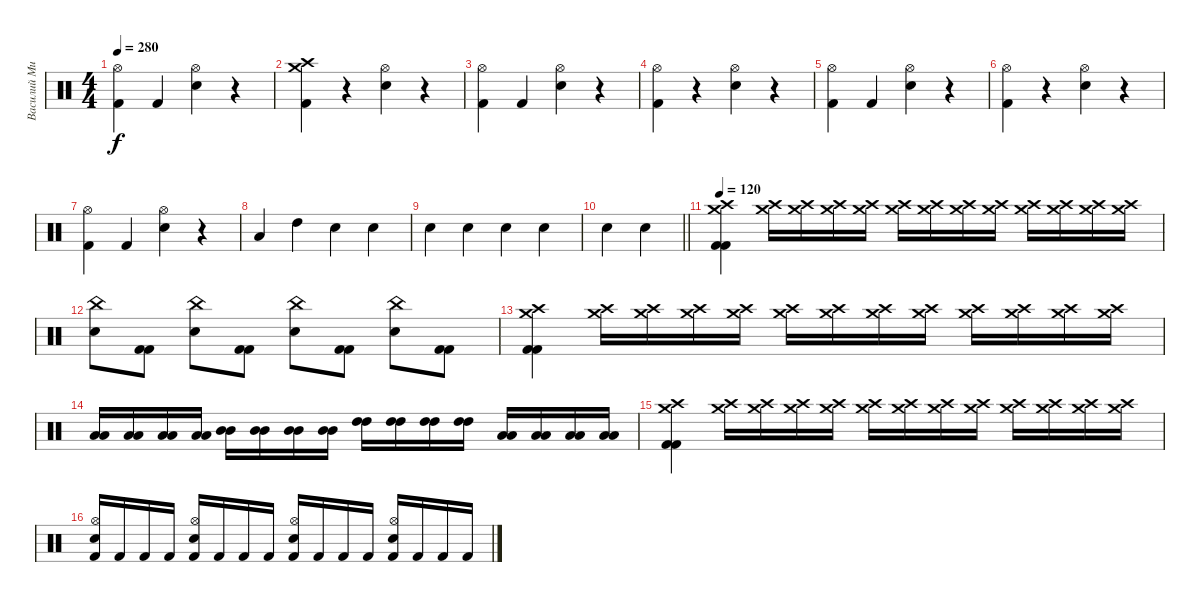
\track ("Василий Михалыч-ударные" "Василий Ми") {instrument percussion}
\staff {score}
\articulation defaults
\ts (4 4)
\tempo 280
\clef neutral
\ks c
("Kick (hit) 2" "Hi-Hat (open)").4{dy f} "Kick (hit) 2".4 ("Snare (hit) 2" "Hi-Hat (open)").4 r.4 |
("Kick (hit) 2" "Crash high (hit)" "Crash medium (hit)").4 r.4 ("Snare (hit) 2" "Hi-Hat (open)").4 r.4 |
("Kick (hit) 2" "Hi-Hat (open)").4 "Kick (hit) 2".4 ("Snare (hit) 2" "Hi-Hat (open)").4 r.4 |
("Kick (hit) 2" "Hi-Hat (open)").4 r.4 ("Snare (hit) 2" "Hi-Hat (open)").4 r.4 |
("Kick (hit) 2" "Hi-Hat (open)").4 "Kick (hit) 2".4 ("Snare (hit) 2" "Hi-Hat (open)").4 r.4 |
("Kick (hit) 2" "Hi-Hat (open)").4 r.4 ("Snare (hit) 2" "Hi-Hat (open)").4 r.4 |
("Kick (hit) 2" "Hi-Hat (open)").4 "Kick (hit) 2".4 ("Snare (hit) 2" "Hi-Hat (open)").4 r.4 |
"Low Tom (hit)".4 "High Tom (hit)".4 "Snare (hit) 2".4 "Snare (hit) 2".4 |
"Snare (hit) 2".4 "Snare (hit) 2".4 "Snare (hit) 2".4 "Snare (hit) 2".4 |
\barLineRight lightlight "Snare (hit) 2".4 "Snare (hit) 2".4
|
\tempo 120
("Kick (hit) 2" "Kick (hit) 2" "Crash high (hit)" "Crash medium (hit)").4 ("Crash high (hit)" "Crash medium (hit)").16 ("Crash high (hit)" "Crash medium (hit)").16 ("Crash high (hit)" "Crash medium (hit)").16 ("Crash high (hit)" "Crash medium (hit)").16 ("Crash high (hit)" "Crash medium (hit)").16 ("Crash high (hit)" "Crash medium (hit)").16 ("Crash high (hit)" "Crash medium (hit)").16 ("Crash high (hit)" "Crash medium (hit)").16 ("Crash high (hit)" "Crash medium (hit)").16 ("Crash high (hit)" "Crash medium (hit)").16 ("Crash high (hit)" "Crash medium (hit)").16 ("Crash high (hit)" "Crash medium (hit)").16 |
("Electric Snare (hit)" "China (hit)").8 ("Kick (hit) 2" "Kick (hit) 2").8 ("Electric Snare (hit)" "China (hit)").8 ("Kick (hit) 2" "Kick (hit) 2").8 ("Electric Snare (hit)" "China (hit)").8 ("Kick (hit) 2" "Kick (hit) 2").8 ("Electric Snare (hit)" "China (hit)").8 ("Kick (hit) 2" "Kick (hit) 2").8 |
("Kick (hit) 2" "Kick (hit) 2" "Crash high (hit)" "Crash medium (hit)").4 ("Crash high (hit)" "Crash medium (hit)").16 ("Crash high (hit)" "Crash medium (hit)").16 ("Crash high (hit)" "Crash medium (hit)").16 ("Crash high (hit)" "Crash medium (hit)").16 ("Crash high (hit)" "Crash medium (hit)").16 ("Crash high (hit)" "Crash medium (hit)").16 ("Crash high (hit)" "Crash medium (hit)").16 ("Crash high (hit)" "Crash medium (hit)").16 ("Crash high (hit)" "Crash medium (hit)").16 ("Crash high (hit)" "Crash medium (hit)").16 ("Crash high (hit)" "Crash medium (hit)").16 ("Crash high (hit)" "Crash medium (hit)").16 |
("Low Tom (hit)" "Low Tom (hit)").16 ("Low Tom (hit)" "Low Tom (hit)").16 ("Low Tom (hit)" "Low Tom (hit)").16 ("Low Tom (hit)" "Low Tom (hit)").16 ("Mid Tom (hit)" "Mid Tom (hit)").16 ("Mid Tom (hit)" "Mid Tom (hit)").16 ("Mid Tom (hit)" "Mid Tom (hit)").16 ("Mid Tom (hit)" "Mid Tom (hit)").16 ("High Tom (hit)" "High Tom (hit)").16 ("High Tom (hit)" "High Tom (hit)").16 ("High Tom (hit)" "High Tom (hit)").16 ("High Tom (hit)" "High Tom (hit)").16 ("Low Tom (hit)" "Low Tom (hit)").16 ("Low Tom (hit)" "Low Tom (hit)").16 ("Low Tom (hit)" "Low Tom (hit)").16 ("Low Tom (hit)" "Low Tom (hit)").16 |
("Kick (hit) 2" "Kick (hit) 2" "Crash high (hit)" "Crash medium (hit)").4 ("Crash high (hit)" "Crash medium (hit)").16 ("Crash high (hit)" "Crash medium (hit)").16 ("Crash high (hit)" "Crash medium (hit)").16 ("Crash high (hit)" "Crash medium (hit)").16 ("Crash high (hit)" "Crash medium (hit)").16 ("Crash high (hit)" "Crash medium (hit)").16 ("Crash high (hit)" "Crash medium (hit)").16 ("Crash high (hit)" "Crash medium (hit)").16 ("Crash high (hit)" "Crash medium (hit)").16 ("Crash high (hit)" "Crash medium (hit)").16 ("Crash high (hit)" "Crash medium (hit)").16 ("Crash high (hit)" "Crash medium (hit)").16 |
("Kick (hit) 2" "Electric Snare (hit)" "Hi-Hat (open)").16 "Kick (hit) 2".16 "Kick (hit) 2".16 "Kick (hit) 2".16 ("Kick (hit) 2" "Electric Snare (hit)" "Hi-Hat (open)").16 "Kick (hit) 2".16 "Kick (hit) 2".16 "Kick (hit) 2".16 ("Kick (hit) 2" "Electric Snare (hit)" "Hi-Hat (open)").16 "Kick (hit) 2".16 "Kick (hit) 2".16 "Kick (hit) 2".16 ("Kick (hit) 2" "Electric Snare (hit)" "Hi-Hat (open)").16 "Kick (hit) 2".16 "Kick (hit) 2".16 "Kick (hit) 2".16
